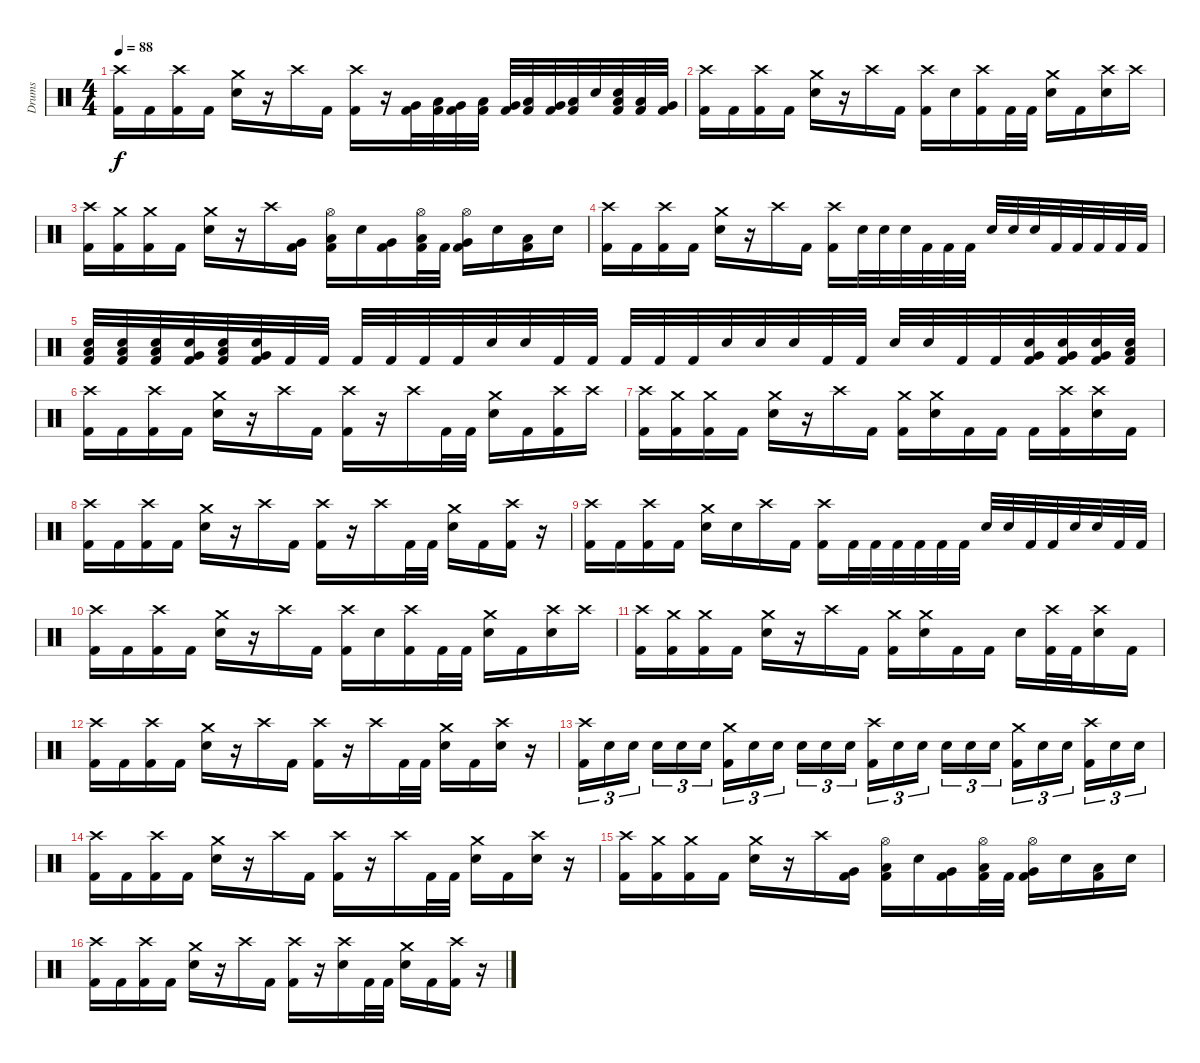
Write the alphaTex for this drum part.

\track ("Drums" "Drums") {instrument percussion}
\staff {score}
\articulation defaults
\ts (4 4)
\tempo 88
\clef neutral
\ks c
("Crash high (hit)" "Kick (hit) 2").16{dy f} "Kick (hit) 2".16 ("Crash high (hit)" "Kick (hit) 2").16 "Kick (hit) 2".16 ("Crash medium (hit)" "Electric Snare (hit)").16 r.16 "Crash high (hit)".16 "Kick (hit) 2".16 ("Crash high (hit)" "Kick (hit) 2").16 r.16 ("Very Low Tom (hit)" "Kick (hit) 2").32 ("Low Floor Tom (hit)" "Kick (hit) 2").32 ("Very Low Tom (hit)" "Kick (hit) 2").32 ("Low Floor Tom (hit)" "Kick (hit) 2").32 ("Very Low Tom (hit)" "Kick (hit) 2").32 ("Low Floor Tom (hit)" "Kick (hit) 2").32 ("Very Low Tom (hit)" "Kick (hit) 2").32 ("Low Floor Tom (hit)" "Kick (hit) 2").32 "Electric Snare (hit)".32 ("Electric Snare (hit)" "Low Floor Tom (hit)" "Kick (hit) 2").32 ("Low Floor Tom (hit)" "Kick (hit) 2").32 ("Very Low Tom (hit)" "Kick (hit) 2").32 |
("Crash high (hit)" "Kick (hit) 2").16 "Kick (hit) 2".16 ("Crash high (hit)" "Kick (hit) 2").16 "Kick (hit) 2".16 ("Crash medium (hit)" "Electric Snare (hit)").16 r.16 "Crash high (hit)".16 "Kick (hit) 2".16 ("Crash high (hit)" "Kick (hit) 2").16 "Electric Snare (hit)".16 ("Crash high (hit)" "Kick (hit) 2").16 "Kick (hit) 2".32 "Kick (hit) 2".32 ("Crash medium (hit)" "Electric Snare (hit)").16 "Kick (hit) 2".16 ("Crash high (hit)" "Electric Snare (hit)").16 "Crash high (hit)".16 |
("Crash high (hit)" "Kick (hit) 2").16 ("Crash medium (hit)" "Kick (hit) 2").16 ("Crash medium (hit)" "Kick (hit) 2").16 "Kick (hit) 2".16 ("Crash medium (hit)" "Electric Snare (hit)").16 r.16 "Crash high (hit)".16 ("Kick (hit) 2" "Very Low Tom (hit)").16 ("Hi-Hat (open)" "Kick (hit) 2" "Low Floor Tom (hit)").16 "Electric Snare (hit)".16 ("Kick (hit) 2" "Very Low Tom (hit)").16 ("Hi-Hat (open)" "Kick (hit) 2" "Low Floor Tom (hit)").32 "Kick (hit) 2".32 ("Hi-Hat (open)" "Kick (hit) 2" "Very Low Tom (hit)").16 "Electric Snare (hit)".16 ("Kick (hit) 2" "Low Floor Tom (hit)").16 "Electric Snare (hit)".16 |
("Crash high (hit)" "Kick (hit) 2").16 "Kick (hit) 2".16 ("Crash high (hit)" "Kick (hit) 2").16 "Kick (hit) 2".16 ("Crash medium (hit)" "Electric Snare (hit)").16 r.16 "Crash high (hit)".16 "Kick (hit) 2".16 ("Crash high (hit)" "Kick (hit) 2").16 "Electric Snare (hit)".32 "Electric Snare (hit)".32 "Electric Snare (hit)".32 "Kick (hit) 2".32 "Kick (hit) 2".32 "Kick (hit) 2".32 "Electric Snare (hit)".32 "Electric Snare (hit)".32 "Electric Snare (hit)".32 "Kick (hit) 2".32 "Kick (hit) 2".32 "Kick (hit) 2".32 "Kick (hit) 2".32 "Kick (hit) 2".32 |
("Electric Snare (hit)" "Kick (hit) 2" "Low Floor Tom (hit)").32 ("Electric Snare (hit)" "Low Floor Tom (hit)" "Kick (hit) 2").32 ("Electric Snare (hit)" "Kick (hit) 2" "Low Floor Tom (hit)").32 ("Electric Snare (hit)" "Very Low Tom (hit)" "Kick (hit) 2").32 ("Electric Snare (hit)" "Kick (hit) 2" "Low Floor Tom (hit)").32 ("Electric Snare (hit)" "Very Low Tom (hit)" "Kick (hit) 2").32 "Kick (hit) 2".32 "Kick (hit) 2".32 "Kick (hit) 2".32 "Kick (hit) 2".32 "Kick (hit) 2".32 "Kick (hit) 2".32 "Electric Snare (hit)".32 "Electric Snare (hit)".32 "Kick (hit) 2".32 "Kick (hit) 2".32 "Kick (hit) 2".32 "Kick (hit) 2".32 "Kick (hit) 2".32 "Electric Snare (hit)".32 "Electric Snare (hit)".32 "Electric Snare (hit)".32 "Kick (hit) 2".32 "Kick (hit) 2".32 "Electric Snare (hit)".32 "Electric Snare (hit)".32 "Kick (hit) 2".32 "Kick (hit) 2".32 ("Electric Snare (hit)" "Very Low Tom (hit)" "Kick (hit) 2").32 ("Electric Snare (hit)" "Very Low Tom (hit)" "Kick (hit) 2").32 ("Electric Snare (hit)" "Very Low Tom (hit)" "Kick (hit) 2").32 ("Electric Snare (hit)" "Low Floor Tom (hit)" "Kick (hit) 2").32 |
("Crash high (hit)" "Kick (hit) 2").16 "Kick (hit) 2".16 ("Crash high (hit)" "Kick (hit) 2").16 "Kick (hit) 2".16 ("Crash medium (hit)" "Electric Snare (hit)").16 r.16 "Crash high (hit)".16 "Kick (hit) 2".16 ("Crash high (hit)" "Kick (hit) 2").16 r.16 "Crash high (hit)".16 "Kick (hit) 2".32 "Kick (hit) 2".32 ("Crash medium (hit)" "Electric Snare (hit)").16 "Kick (hit) 2".16 ("Crash high (hit)" "Kick (hit) 2").16 "Crash high (hit)".16 |
("Crash high (hit)" "Kick (hit) 2").16 ("Crash medium (hit)" "Kick (hit) 2").16 ("Crash medium (hit)" "Kick (hit) 2").16 "Kick (hit) 2".16 ("Crash medium (hit)" "Electric Snare (hit)").16 r.16 "Crash high (hit)".16 "Kick (hit) 2".16 ("Crash medium (hit)" "Kick (hit) 2").16 ("Crash medium (hit)" "Electric Snare (hit)").16 "Kick (hit) 2".16 "Kick (hit) 2".16 "Kick (hit) 2".16 ("Crash high (hit)" "Kick (hit) 2").16 ("Crash high (hit)" "Electric Snare (hit)").16 "Kick (hit) 2".16 |
("Crash high (hit)" "Kick (hit) 2").16 "Kick (hit) 2".16 ("Crash high (hit)" "Kick (hit) 2").16 "Kick (hit) 2".16 ("Crash medium (hit)" "Electric Snare (hit)").16 r.16 "Crash high (hit)".16 "Kick (hit) 2".16 ("Crash high (hit)" "Kick (hit) 2").16 r.16 "Crash high (hit)".16 "Kick (hit) 2".32 "Kick (hit) 2".32 ("Crash medium (hit)" "Electric Snare (hit)").16 "Kick (hit) 2".16 ("Crash high (hit)" "Kick (hit) 2").16 r.16 |
("Crash high (hit)" "Kick (hit) 2").16 "Kick (hit) 2".16 ("Crash high (hit)" "Kick (hit) 2").16 "Kick (hit) 2".16 ("Crash medium (hit)" "Electric Snare (hit)").16 "Electric Snare (hit)".16 "Crash high (hit)".16 "Kick (hit) 2".16 ("Crash high (hit)" "Kick (hit) 2").16 "Kick (hit) 2".32 "Kick (hit) 2".32 "Kick (hit) 2".32 "Kick (hit) 2".32 "Kick (hit) 2".32 "Kick (hit) 2".32 "Electric Snare (hit)".32 "Electric Snare (hit)".32 "Kick (hit) 2".32 "Kick (hit) 2".32 "Electric Snare (hit)".32 "Electric Snare (hit)".32 "Kick (hit) 2".32 "Kick (hit) 2".32 |
("Crash high (hit)" "Kick (hit) 2").16 "Kick (hit) 2".16 ("Crash high (hit)" "Kick (hit) 2").16 "Kick (hit) 2".16 ("Crash medium (hit)" "Electric Snare (hit)").16 r.16 "Crash high (hit)".16 "Kick (hit) 2".16 ("Crash high (hit)" "Kick (hit) 2").16 "Electric Snare (hit)".16 ("Crash high (hit)" "Kick (hit) 2").16 "Kick (hit) 2".32 "Kick (hit) 2".32 ("Crash medium (hit)" "Electric Snare (hit)").16 "Kick (hit) 2".16 ("Crash high (hit)" "Electric Snare (hit)").16 "Crash high (hit)".16 |
("Crash high (hit)" "Kick (hit) 2").16 ("Crash medium (hit)" "Kick (hit) 2").16 ("Crash medium (hit)" "Kick (hit) 2").16 "Kick (hit) 2".16 ("Crash medium (hit)" "Electric Snare (hit)").16 r.16 "Crash high (hit)".16 "Kick (hit) 2".16 ("Crash medium (hit)" "Kick (hit) 2").16 ("Crash medium (hit)" "Electric Snare (hit)").16 "Kick (hit) 2".16 "Kick (hit) 2".16 "Electric Snare (hit)".16 ("Crash high (hit)" "Kick (hit) 2").32 "Kick (hit) 2".32 ("Crash high (hit)" "Electric Snare (hit)").16 "Kick (hit) 2".16 |
("Crash high (hit)" "Kick (hit) 2").16 "Kick (hit) 2".16 ("Crash high (hit)" "Kick (hit) 2").16 "Kick (hit) 2".16 ("Crash medium (hit)" "Electric Snare (hit)").16 r.16 "Crash high (hit)".16 "Kick (hit) 2".16 ("Crash high (hit)" "Kick (hit) 2").16 r.16 "Crash high (hit)".16 "Kick (hit) 2".32 "Kick (hit) 2".32 ("Crash medium (hit)" "Electric Snare (hit)").16 "Kick (hit) 2".16 ("Crash high (hit)" "Electric Snare (hit)").16 r.16 |
("Crash high (hit)" "Kick (hit) 2").16{tu (3 2)} "Electric Snare (hit)".16{tu (3 2)} "Electric Snare (hit)".16{tu (3 2)} "Electric Snare (hit)".16{tu (3 2)} "Electric Snare (hit)".16{tu (3 2)} "Electric Snare (hit)".16{tu (3 2)} ("Crash medium (hit)" "Kick (hit) 2").16{tu (3 2)} "Electric Snare (hit)".16{tu (3 2)} "Electric Snare (hit)".16{tu (3 2)} "Electric Snare (hit)".16{tu (3 2)} "Electric Snare (hit)".16{tu (3 2)} "Electric Snare (hit)".16{tu (3 2)} ("Crash high (hit)" "Kick (hit) 2").16{tu (3 2)} "Electric Snare (hit)".16{tu (3 2)} "Electric Snare (hit)".16{tu (3 2)} "Electric Snare (hit)".16{tu (3 2)} "Electric Snare (hit)".16{tu (3 2)} "Electric Snare (hit)".16{tu (3 2)} ("Crash medium (hit)" "Kick (hit) 2").16{tu (3 2)} "Electric Snare (hit)".16{tu (3 2)} "Electric Snare (hit)".16{tu (3 2)} ("Crash high (hit)" "Kick (hit) 2").16{tu (3 2)} "Electric Snare (hit)".16{tu (3 2)} "Electric Snare (hit)".16{tu (3 2)} |
("Crash high (hit)" "Kick (hit) 2").16 "Kick (hit) 2".16 ("Crash high (hit)" "Kick (hit) 2").16 "Kick (hit) 2".16 ("Crash medium (hit)" "Electric Snare (hit)").16 r.16 "Crash high (hit)".16 "Kick (hit) 2".16 ("Crash high (hit)" "Kick (hit) 2").16 r.16 "Crash high (hit)".16 "Kick (hit) 2".32 "Kick (hit) 2".32 ("Crash medium (hit)" "Electric Snare (hit)").16 "Kick (hit) 2".16 ("Crash high (hit)" "Electric Snare (hit)").16 r.16 |
("Crash high (hit)" "Kick (hit) 2").16 ("Crash medium (hit)" "Kick (hit) 2").16 ("Crash medium (hit)" "Kick (hit) 2").16 "Kick (hit) 2".16 ("Crash medium (hit)" "Electric Snare (hit)").16 r.16 "Crash high (hit)".16 ("Kick (hit) 2" "Very Low Tom (hit)").16 ("Hi-Hat (open)" "Kick (hit) 2" "Low Floor Tom (hit)").16 "Electric Snare (hit)".16 ("Kick (hit) 2" "Very Low Tom (hit)").16 ("Hi-Hat (open)" "Kick (hit) 2" "Low Floor Tom (hit)").32 "Kick (hit) 2".32 ("Hi-Hat (open)" "Kick (hit) 2" "Very Low Tom (hit)").16 "Electric Snare (hit)".16 ("Kick (hit) 2" "Low Floor Tom (hit)").16 "Electric Snare (hit)".16 |
("Crash high (hit)" "Kick (hit) 2").16 "Kick (hit) 2".16 ("Crash high (hit)" "Kick (hit) 2").16 "Kick (hit) 2".16 ("Crash medium (hit)" "Electric Snare (hit)").16 r.16 "Crash high (hit)".16 "Kick (hit) 2".16 ("Crash high (hit)" "Kick (hit) 2").16 r.16 ("Crash high (hit)" "Electric Snare (hit)").16 "Kick (hit) 2".32 "Kick (hit) 2".32 ("Crash medium (hit)" "Electric Snare (hit)").16 "Kick (hit) 2".16 ("Crash high (hit)" "Kick (hit) 2").16 r.16
